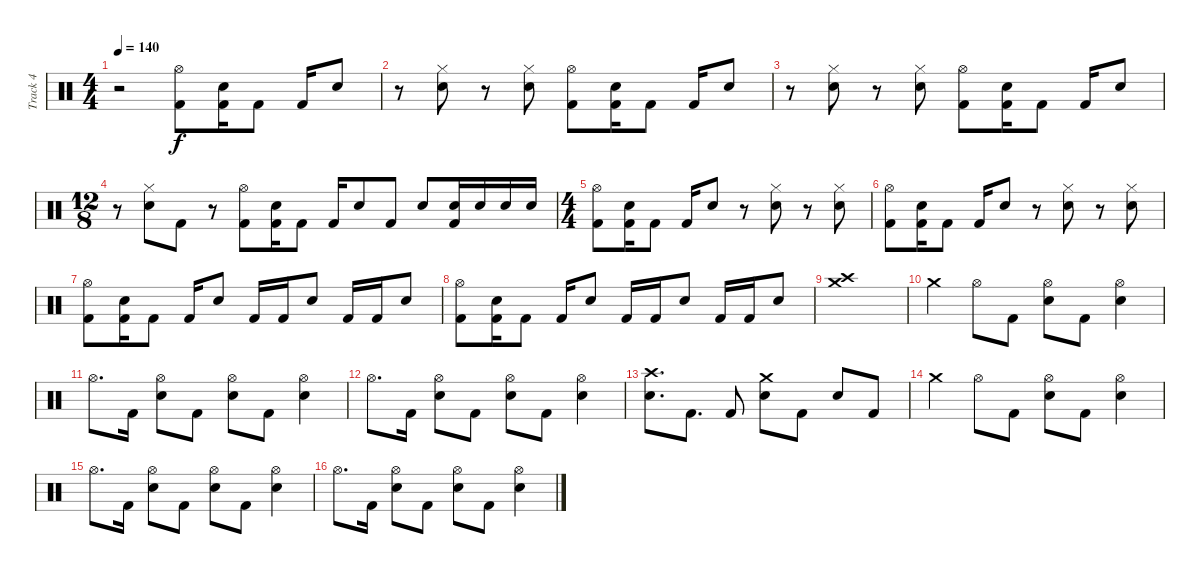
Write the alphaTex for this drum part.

\track ("Track 4" "Track 4") {instrument percussion}
\staff {score}
\articulation defaults
\ts (4 4)
\tempo 140
\clef neutral
\ks c
r.2{dy f} ("Hi-Hat (open)" "Kick (hit) 2").8 ("Snare (hit) 2" "Kick (hit) 2").16 "Kick (hit) 2".8 "Kick (hit) 2".16 "Snare (hit) 2".8 |
r.8 ("Hi-Hat (closed)" "Snare (hit) 2").8 r.8 ("Hi-Hat (closed)" "Snare (hit) 2").8 ("Hi-Hat (open)" "Kick (hit) 2").8 ("Snare (hit) 2" "Kick (hit) 2").16 "Kick (hit) 2".8 "Kick (hit) 2".16 "Snare (hit) 2".8 |
r.8 ("Hi-Hat (closed)" "Snare (hit) 2").8 r.8 ("Hi-Hat (closed)" "Snare (hit) 2").8 ("Hi-Hat (open)" "Kick (hit) 2").8 ("Snare (hit) 2" "Kick (hit) 2").16 "Kick (hit) 2".8 "Kick (hit) 2".16 "Snare (hit) 2".8 |
\ts (12 8)
r.8 ("Hi-Hat (closed)" "Snare (hit) 2").8 "Kick (hit) 2".8 r.8 ("Hi-Hat (open)" "Kick (hit) 2").8 ("Snare (hit) 2" "Kick (hit) 2").16 "Kick (hit) 2".8 "Kick (hit) 2".16 "Snare (hit) 2".8 "Kick (hit) 2".8 "Snare (hit) 2".8 ("Snare (hit) 2" "Kick (hit) 2").16 "Snare (hit) 2".16 "Snare (hit) 2".16 "Snare (hit) 2".16 |
\ts (4 4)
("Hi-Hat (open)" "Kick (hit) 2").8 ("Snare (hit) 2" "Kick (hit) 2").16 "Kick (hit) 2".8 "Kick (hit) 2".16 "Snare (hit) 2".8 r.8 ("Hi-Hat (closed)" "Snare (hit) 2").8 r.8 ("Hi-Hat (closed)" "Snare (hit) 2").8 |
("Hi-Hat (open)" "Kick (hit) 2").8 ("Snare (hit) 2" "Kick (hit) 2").16 "Kick (hit) 2".8 "Kick (hit) 2".16 "Snare (hit) 2".8 r.8 ("Hi-Hat (closed)" "Snare (hit) 2").8 r.8 ("Hi-Hat (closed)" "Snare (hit) 2").8 |
("Hi-Hat (open)" "Kick (hit) 2").8 ("Snare (hit) 2" "Kick (hit) 2").16 "Kick (hit) 2".8 "Kick (hit) 2".16 "Snare (hit) 2".8 "Kick (hit) 2".16 "Kick (hit) 2".16 "Snare (hit) 2".8 "Kick (hit) 2".16 "Kick (hit) 2".16 "Snare (hit) 2".8 |
("Hi-Hat (open)" "Kick (hit) 2").8 ("Snare (hit) 2" "Kick (hit) 2").16 "Kick (hit) 2".8 "Kick (hit) 2".16 "Snare (hit) 2".8 "Kick (hit) 2".16 "Kick (hit) 2".16 "Snare (hit) 2".8 "Kick (hit) 2".16 "Kick (hit) 2".16 "Snare (hit) 2".8 |
("Crash medium (hit)" "Crash high (hit)").1 |
"Crash medium (hit)".4 "Hi-Hat (open)".8 "Kick (hit) 2".8 ("Hi-Hat (open)" "Snare (hit) 2").8 "Kick (hit) 2".8 ("Hi-Hat (open)" "Snare (hit) 2").4 |
"Hi-Hat (open)".8{d} "Kick (hit) 2".16 ("Hi-Hat (open)" "Snare (hit) 2").8 "Kick (hit) 2".8 ("Hi-Hat (open)" "Snare (hit) 2").8 "Kick (hit) 2".8 ("Hi-Hat (open)" "Snare (hit) 2").4 |
"Hi-Hat (open)".8{d} "Kick (hit) 2".16 ("Hi-Hat (open)" "Snare (hit) 2").8 "Kick (hit) 2".8 ("Hi-Hat (open)" "Snare (hit) 2").8 "Kick (hit) 2".8 ("Hi-Hat (open)" "Snare (hit) 2").4 |
("Crash high (hit)" "Snare (hit) 2").8{d} "Kick (hit) 2".8{d} "Kick (hit) 2".8 ("Crash medium (hit)" "Snare (hit) 2").8 "Kick (hit) 2".8 "Snare (hit) 2".8 "Kick (hit) 2".8 |
"Crash medium (hit)".4 "Hi-Hat (open)".8 "Kick (hit) 2".8 ("Hi-Hat (open)" "Snare (hit) 2").8 "Kick (hit) 2".8 ("Hi-Hat (open)" "Snare (hit) 2").4 |
"Hi-Hat (open)".8{d} "Kick (hit) 2".16 ("Hi-Hat (open)" "Snare (hit) 2").8 "Kick (hit) 2".8 ("Hi-Hat (open)" "Snare (hit) 2").8 "Kick (hit) 2".8 ("Hi-Hat (open)" "Snare (hit) 2").4 |
"Hi-Hat (open)".8{d} "Kick (hit) 2".16 ("Hi-Hat (open)" "Snare (hit) 2").8 "Kick (hit) 2".8 ("Hi-Hat (open)" "Snare (hit) 2").8 "Kick (hit) 2".8 ("Hi-Hat (open)" "Snare (hit) 2").4
